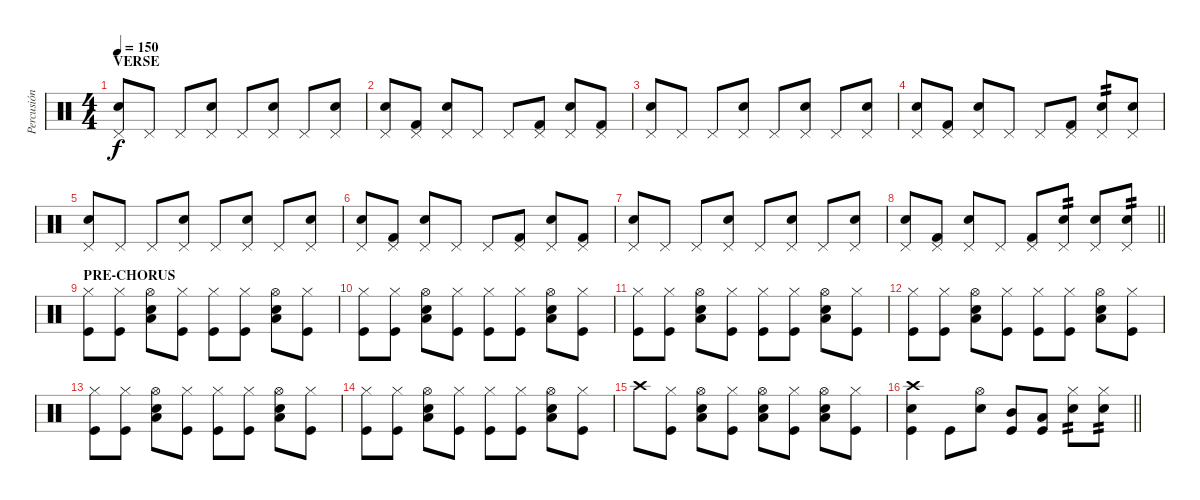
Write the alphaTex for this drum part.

\track ("Percusión" "Percusión") {instrument percussion}
\staff {score}
\articulation defaults
\ts (4 4)
\section ("" "VERSE")
\tempo 150
\clef neutral
\ks c
("Electric Snare (hit)" "Pedal Hi-Hat (hit)").8{dy f} "Pedal Hi-Hat (hit)".8 "Pedal Hi-Hat (hit)".8 ("Electric Snare (hit)" "Pedal Hi-Hat (hit)").8 "Pedal Hi-Hat (hit)".8 ("Electric Snare (hit)" "Pedal Hi-Hat (hit)").8 "Pedal Hi-Hat (hit)".8 ("Electric Snare (hit)" "Pedal Hi-Hat (hit)").8 |
("Electric Snare (hit)" "Pedal Hi-Hat (hit)").8 ("Kick (hit) 2" "Pedal Hi-Hat (hit)").8 ("Electric Snare (hit)" "Pedal Hi-Hat (hit)").8 "Pedal Hi-Hat (hit)".8 "Pedal Hi-Hat (hit)".8 ("Kick (hit) 2" "Pedal Hi-Hat (hit)").8 ("Electric Snare (hit)" "Pedal Hi-Hat (hit)").8 ("Kick (hit) 2" "Pedal Hi-Hat (hit)").8 |
("Electric Snare (hit)" "Pedal Hi-Hat (hit)").8 "Pedal Hi-Hat (hit)".8 "Pedal Hi-Hat (hit)".8 ("Electric Snare (hit)" "Pedal Hi-Hat (hit)").8 "Pedal Hi-Hat (hit)".8 ("Electric Snare (hit)" "Pedal Hi-Hat (hit)").8 "Pedal Hi-Hat (hit)".8 ("Electric Snare (hit)" "Pedal Hi-Hat (hit)").8 |
("Electric Snare (hit)" "Pedal Hi-Hat (hit)").8 ("Kick (hit) 2" "Pedal Hi-Hat (hit)").8 ("Electric Snare (hit)" "Pedal Hi-Hat (hit)").8 "Pedal Hi-Hat (hit)".8 "Pedal Hi-Hat (hit)".8 ("Kick (hit) 2" "Pedal Hi-Hat (hit)").8 ("Electric Snare (hit)" "Pedal Hi-Hat (hit)").8{tp 2} ("Electric Snare (hit)" "Pedal Hi-Hat (hit)").8 |
("Electric Snare (hit)" "Pedal Hi-Hat (hit)").8 "Pedal Hi-Hat (hit)".8 "Pedal Hi-Hat (hit)".8 ("Electric Snare (hit)" "Pedal Hi-Hat (hit)").8 "Pedal Hi-Hat (hit)".8 ("Electric Snare (hit)" "Pedal Hi-Hat (hit)").8 "Pedal Hi-Hat (hit)".8 ("Electric Snare (hit)" "Pedal Hi-Hat (hit)").8 |
("Electric Snare (hit)" "Pedal Hi-Hat (hit)").8 ("Kick (hit) 2" "Pedal Hi-Hat (hit)").8 ("Electric Snare (hit)" "Pedal Hi-Hat (hit)").8 "Pedal Hi-Hat (hit)".8 "Pedal Hi-Hat (hit)".8 ("Kick (hit) 2" "Pedal Hi-Hat (hit)").8 ("Electric Snare (hit)" "Pedal Hi-Hat (hit)").8 ("Kick (hit) 2" "Pedal Hi-Hat (hit)").8 |
("Electric Snare (hit)" "Pedal Hi-Hat (hit)").8 "Pedal Hi-Hat (hit)".8 "Pedal Hi-Hat (hit)".8 ("Electric Snare (hit)" "Pedal Hi-Hat (hit)").8 "Pedal Hi-Hat (hit)".8 ("Electric Snare (hit)" "Pedal Hi-Hat (hit)").8 "Pedal Hi-Hat (hit)".8 ("Electric Snare (hit)" "Pedal Hi-Hat (hit)").8 |
\barLineRight lightlight
("Electric Snare (hit)" "Pedal Hi-Hat (hit)").8 ("Kick (hit) 2" "Pedal Hi-Hat (hit)").8 ("Electric Snare (hit)" "Pedal Hi-Hat (hit)").8 "Pedal Hi-Hat (hit)".8 ("Kick (hit) 2" "Pedal Hi-Hat (hit)").8 ("Electric Snare (hit)" "Pedal Hi-Hat (hit)").8{tp 2} ("Electric Snare (hit)" "Pedal Hi-Hat (hit)").8 ("Electric Snare (hit)" "Pedal Hi-Hat (hit)").8{tp 2} |
\section ("" "PRE-CHORUS")
("Kick (hit)" "Hi-Hat (closed)").8 ("Kick (hit)" "Hi-Hat (closed)").8 ("Low Floor Tom (hit)" "Snare (hit) 2" "Hi-Hat (open)").8 ("Kick (hit)" "Hi-Hat (closed)").8 ("Kick (hit)" "Hi-Hat (closed)").8 ("Kick (hit)" "Hi-Hat (closed)").8 ("Low Floor Tom (hit)" "Snare (hit) 2" "Hi-Hat (open)").8 ("Kick (hit)" "Hi-Hat (closed)").8 |
("Kick (hit)" "Hi-Hat (closed)").8 ("Kick (hit)" "Hi-Hat (closed)").8 ("Low Floor Tom (hit)" "Snare (hit) 2" "Hi-Hat (open)").8 ("Kick (hit)" "Hi-Hat (closed)").8 ("Kick (hit)" "Hi-Hat (closed)").8 ("Kick (hit)" "Hi-Hat (closed)").8 ("Low Floor Tom (hit)" "Snare (hit) 2" "Hi-Hat (open)").8 ("Kick (hit)" "Hi-Hat (closed)").8 |
("Kick (hit)" "Hi-Hat (closed)").8 ("Kick (hit)" "Hi-Hat (closed)").8 ("Low Floor Tom (hit)" "Snare (hit) 2" "Hi-Hat (open)").8 ("Kick (hit)" "Hi-Hat (closed)").8 ("Kick (hit)" "Hi-Hat (closed)").8 ("Kick (hit)" "Hi-Hat (closed)").8 ("Low Floor Tom (hit)" "Snare (hit) 2" "Hi-Hat (open)").8 ("Kick (hit)" "Hi-Hat (closed)").8 |
("Kick (hit)" "Hi-Hat (closed)").8 ("Kick (hit)" "Hi-Hat (closed)").8 ("Low Floor Tom (hit)" "Snare (hit) 2" "Hi-Hat (open)").8 ("Kick (hit)" "Hi-Hat (closed)").8 ("Kick (hit)" "Hi-Hat (closed)").8 ("Kick (hit)" "Hi-Hat (closed)").8 ("Low Floor Tom (hit)" "Snare (hit) 2" "Hi-Hat (open)").8 ("Kick (hit)" "Hi-Hat (closed)").8 |
("Kick (hit)" "Hi-Hat (closed)").8 ("Kick (hit)" "Hi-Hat (closed)").8 ("Low Floor Tom (hit)" "Snare (hit) 2" "Hi-Hat (open)").8 ("Kick (hit)" "Hi-Hat (closed)").8 ("Kick (hit)" "Hi-Hat (closed)").8 ("Kick (hit)" "Hi-Hat (closed)").8 ("Low Floor Tom (hit)" "Snare (hit) 2" "Hi-Hat (open)").8 ("Kick (hit)" "Hi-Hat (closed)").8 |
("Kick (hit)" "Hi-Hat (closed)").8 ("Kick (hit)" "Hi-Hat (closed)").8 ("Low Floor Tom (hit)" "Snare (hit) 2" "Hi-Hat (open)").8 ("Kick (hit)" "Hi-Hat (closed)").8 ("Kick (hit)" "Hi-Hat (closed)").8 ("Kick (hit)" "Hi-Hat (closed)").8 ("Low Floor Tom (hit)" "Snare (hit) 2" "Hi-Hat (open)").8 ("Kick (hit)" "Hi-Hat (closed)").8 |
"Crash high (hit)".8 ("Kick (hit)" "Hi-Hat (closed)").8 ("Low Floor Tom (hit)" "Snare (hit) 2" "Hi-Hat (open)").8 ("Kick (hit)" "Hi-Hat (closed)").8 ("Low Floor Tom (hit)" "Snare (hit) 2" "Hi-Hat (open)").8 ("Kick (hit)" "Hi-Hat (closed)").8 ("Low Floor Tom (hit)" "Snare (hit) 2" "Hi-Hat (open)").8 ("Kick (hit)" "Hi-Hat (closed)").8 |
\barLineRight lightlight
("Crash high (hit)" "Kick (hit)" "Snare (hit) 2").4 "Kick (hit)".8 ("Snare (hit) 2" "Hi-Hat (open)").8 ("Mid Tom (hit)" "Kick (hit)").8 ("Low Floor Tom (hit)" "Kick (hit)").8 ("Snare (hit) 2" "Hi-Hat (closed)").8{tp 2} ("Snare (hit) 2" "Hi-Hat (closed)").8{tp 2}
